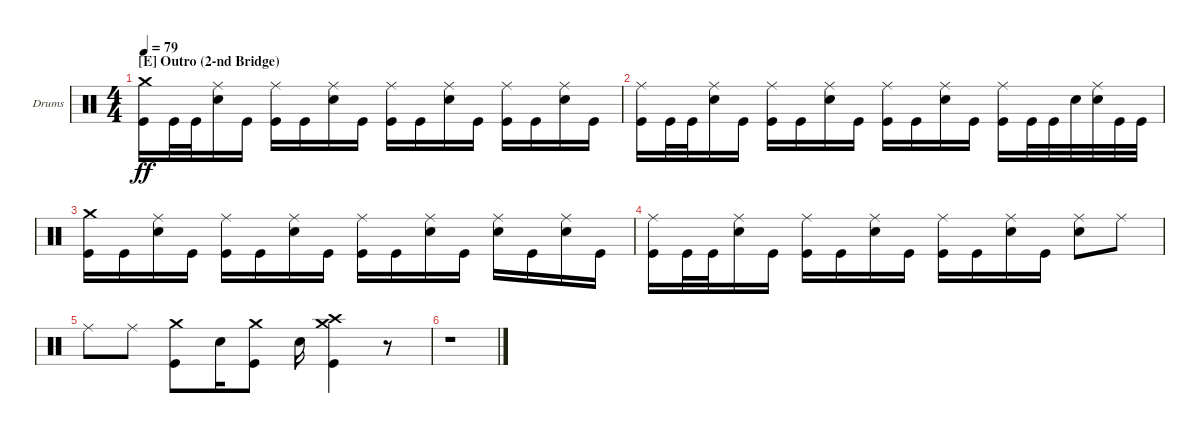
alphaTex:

\bracketExtendMode groupsimilarinstruments
\firstSystemTrackNameOrientation horizontal
\otherSystemsTrackNameOrientation horizontal
\track ("Drums" "Drums") {instrument percussion}
\staff {score}
\articulation defaults
\ts (4 4)
\section ("E" "Outro (2-nd Bridge)")
\tempo 79
\clef neutral
\ks c
("Kick (hit)" "Crash medium (hit)").16{dy ff} "Kick (hit)".32 "Kick (hit)".32 ("Snare (hit) 2" "Ride (middle)").16 "Kick (hit)".16 ("Kick (hit)" "Ride (middle)").16 "Kick (hit)".16 ("Snare (hit) 2" "Ride (middle)").16 "Kick (hit)".16 ("Kick (hit)" "Ride (middle)").16 "Kick (hit)".16 ("Snare (hit) 2" "Ride (middle)").16 "Kick (hit)".16 ("Kick (hit)" "Ride (middle)").16 "Kick (hit)".16 ("Snare (hit) 2" "Ride (middle)").16 "Kick (hit)".16 |
("Kick (hit)" "Ride (middle)").16 "Kick (hit)".32 "Kick (hit)".32 ("Snare (hit) 2" "Ride (middle)").16 "Kick (hit)".16 ("Kick (hit)" "Ride (middle)").16 "Kick (hit)".16 ("Snare (hit) 2" "Ride (middle)").16 "Kick (hit)".16 ("Kick (hit)" "Ride (middle)").16 "Kick (hit)".16 ("Snare (hit) 2" "Ride (middle)").16 "Kick (hit)".16 ("Kick (hit)" "Ride (middle)").16 "Kick (hit)".32 "Kick (hit)".32 "Snare (hit) 2".32 ("Snare (hit) 2" "Ride (middle)").32 "Kick (hit)".32 "Kick (hit)".32 |
("Kick (hit)" "Crash medium (hit)").16 "Kick (hit)".16 ("Snare (hit) 2" "Ride (middle)").16 "Kick (hit)".16 ("Kick (hit)" "Ride (middle)").16 "Kick (hit)".16 ("Snare (hit) 2" "Ride (middle)").16 "Kick (hit)".16 ("Kick (hit)" "Ride (middle)").16 "Kick (hit)".16 ("Snare (hit) 2" "Ride (middle)").16 "Kick (hit)".16 ("Ride (middle)" "Snare (hit) 2").16 "Kick (hit)".16 ("Snare (hit) 2" "Ride (middle)").16 "Kick (hit)".16 |
("Kick (hit)" "Ride (middle)").16 "Kick (hit)".32 "Kick (hit)".32 ("Snare (hit) 2" "Ride (middle)").16 "Kick (hit)".16 ("Kick (hit)" "Ride (middle)").16 "Kick (hit)".16 ("Snare (hit) 2" "Ride (middle)").16 "Kick (hit)".16 ("Kick (hit)" "Ride (middle)").16 "Kick (hit)".16 ("Snare (hit) 2" "Ride (middle)").16 "Kick (hit)".16 ("Ride (middle)" "Snare (hit) 2").8 "Ride (middle)".8 |
"Ride (middle)".8 "Ride (middle)".8 ("Crash medium (hit)" "Kick (hit)").8 "Snare (hit) 2".16 ("Kick (hit)" "Crash medium (hit)").8 "Snare (hit) 2".16 ("Kick (hit)" "Crash medium (hit)" "Crash high (hit)").4 r.8 |
r.1
